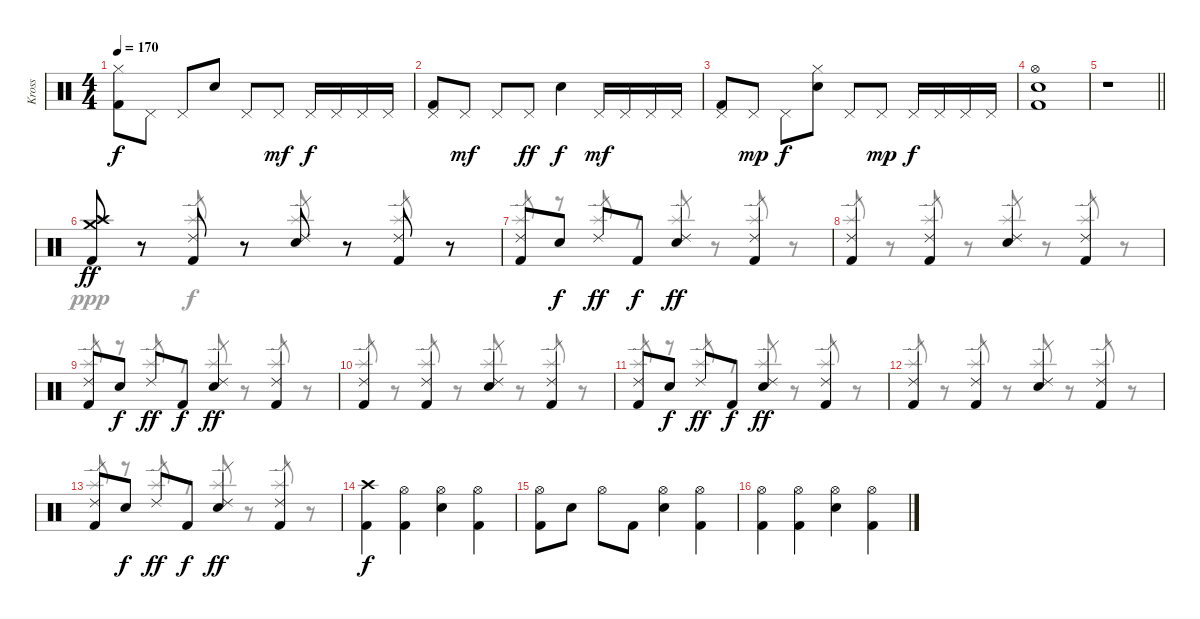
\track ("Kross" "Kross") {instrument percussion}
\staff {score}
\articulation defaults
\voice
\ts (4 4)
\tempo 170
\clef neutral
\ks c
("Hi-Hat (closed)" "Kick (hit) 2").8{dy f} "Pedal Hi-Hat (hit)".8 "Pedal Hi-Hat (hit)".8 "Electric Snare (hit)".8 "Pedal Hi-Hat (hit)".8 "Pedal Hi-Hat (hit)".8{dy mf} "Pedal Hi-Hat (hit)".16{dy f} "Pedal Hi-Hat (hit)".16 "Pedal Hi-Hat (hit)".16 "Pedal Hi-Hat (hit)".16 |
("Pedal Hi-Hat (hit)" "Kick (hit) 2").8 "Pedal Hi-Hat (hit)".8{dy mf} "Pedal Hi-Hat (hit)".8 "Pedal Hi-Hat (hit)".8{dy ff} "Electric Snare (hit)".4{dy f} "Pedal Hi-Hat (hit)".16{dy mf} "Pedal Hi-Hat (hit)".16 "Pedal Hi-Hat (hit)".16 "Pedal Hi-Hat (hit)".16 |
("Pedal Hi-Hat (hit)" "Kick (hit) 2").8 "Pedal Hi-Hat (hit)".8{dy mp} "Pedal Hi-Hat (hit)".8{dy f} ("Hi-Hat (closed)" "Electric Snare (hit)").8 "Pedal Hi-Hat (hit)".8 "Pedal Hi-Hat (hit)".8{dy mp} "Pedal Hi-Hat (hit)".16{dy f} "Pedal Hi-Hat (hit)".16 "Pedal Hi-Hat (hit)".16 "Pedal Hi-Hat (hit)".16 |
("Hi-Hat (open)" "Electric Snare (hit)" "Kick (hit) 2").1 |
\barLineRight lightlight
r.1 |
("Crash high (hit)" "Crash medium (hit)" "Kick (hit) 2").8{dy ff} r.8 ("Ride (edge) 2" "Kick (hit) 2").8 r.8 ("Ride (edge) 2" "Electric Snare (hit)").8 r.8 ("Ride (edge) 2" "Kick (hit) 2").8 r.8 |
("Ride (edge) 2" "Kick (hit) 2").8 "Electric Snare (hit)".8{dy f} "Ride (edge) 2".8{dy ff} "Kick (hit) 2".8{dy f} ("Ride (edge) 2" "Electric Snare (hit)").4{dy ff} ("Ride (edge) 2" "Kick (hit) 2").4 |
("Ride (edge) 2" "Kick (hit) 2").4 ("Ride (edge) 2" "Kick (hit) 2").4 ("Ride (edge) 2" "Electric Snare (hit)").4 ("Ride (edge) 2" "Kick (hit) 2").4 |
("Ride (edge) 2" "Kick (hit) 2").8 "Electric Snare (hit)".8{dy f} "Ride (edge) 2".8{dy ff} "Kick (hit) 2".8{dy f} ("Ride (edge) 2" "Electric Snare (hit)").4{dy ff} ("Ride (edge) 2" "Kick (hit) 2").4 |
("Ride (edge) 2" "Kick (hit) 2").4 ("Ride (edge) 2" "Kick (hit) 2").4 ("Ride (edge) 2" "Electric Snare (hit)").4 ("Ride (edge) 2" "Kick (hit) 2").4 |
("Ride (edge) 2" "Kick (hit) 2").8 "Electric Snare (hit)".8{dy f} "Ride (edge) 2".8{dy ff} "Kick (hit) 2".8{dy f} ("Ride (edge) 2" "Electric Snare (hit)").4{dy ff} ("Ride (edge) 2" "Kick (hit) 2").4 |
("Ride (edge) 2" "Kick (hit) 2").4 ("Ride (edge) 2" "Kick (hit) 2").4 ("Ride (edge) 2" "Electric Snare (hit)").4 ("Ride (edge) 2" "Kick (hit) 2").4 |
("Ride (edge) 2" "Kick (hit) 2").8 "Electric Snare (hit)".8{dy f} "Ride (edge) 2".8{dy ff} "Kick (hit) 2".8{dy f} ("Ride (edge) 2" "Electric Snare (hit)").4{dy ff} ("Ride (edge) 2" "Kick (hit) 2").4 |
("Crash high (hit)" "Kick (hit) 2").4{dy f} ("Hi-Hat (open)" "Kick (hit) 2").4 ("Hi-Hat (open)" "Electric Snare (hit)").4 ("Hi-Hat (open)" "Kick (hit) 2").4 |
("Hi-Hat (open)" "Kick (hit) 2").8 "Electric Snare (hit)".8 "Hi-Hat (open)".8 "Kick (hit) 2".8 ("Hi-Hat (open)" "Electric Snare (hit)").4 ("Hi-Hat (open)" "Kick (hit) 2").4 |
("Hi-Hat (open)" "Kick (hit) 2").4 ("Hi-Hat (open)" "Kick (hit) 2").4 ("Hi-Hat (open)" "Electric Snare (hit)").4 ("Hi-Hat (open)" "Kick (hit) 2").4
\voice
\clef neutral
\ottava regular
\simile none
\ks c
|
|
|
|
\barLineRight lightlight
|
"Splash (hit)".8{dy ppp beam Up} r.8 "Splash (hit)".8{dy f beam Up} r.8 "Splash (hit)".8{beam Up} r.8 "Splash (hit)".8{beam Up} r.8 |
"Splash (hit)".8{beam Up} r.8 "Splash (hit)".8{beam Up} r.8 "Splash (hit)".8{beam Up} r.8 "Splash (hit)".8{beam Up} r.8 |
"Splash (hit)".8{beam Up} r.8 "Splash (hit)".8{beam Up} r.8 "Splash (hit)".8{beam Up} r.8 "Splash (hit)".8{beam Up} r.8 |
"Splash (hit)".8{beam Up} r.8 "Splash (hit)".8{beam Up} r.8 "Splash (hit)".8{beam Up} r.8 "Splash (hit)".8{beam Up} r.8 |
"Splash (hit)".8{beam Up} r.8 "Splash (hit)".8{beam Up} r.8 "Splash (hit)".8{beam Up} r.8 "Splash (hit)".8{beam Up} r.8 |
"Splash (hit)".8{beam Up} r.8 "Splash (hit)".8{beam Up} r.8 "Splash (hit)".8{beam Up} r.8 "Splash (hit)".8{beam Up} r.8 |
"Splash (hit)".8{beam Up} r.8 "Splash (hit)".8{beam Up} r.8 "Splash (hit)".8{beam Up} r.8 "Splash (hit)".8{beam Up} r.8 |
"Splash (hit)".8{beam Up} r.8 "Splash (hit)".8{beam Up} r.8 "Splash (hit)".8{beam Up} r.8 "Splash (hit)".8{beam Up} r.8 |
|
|
